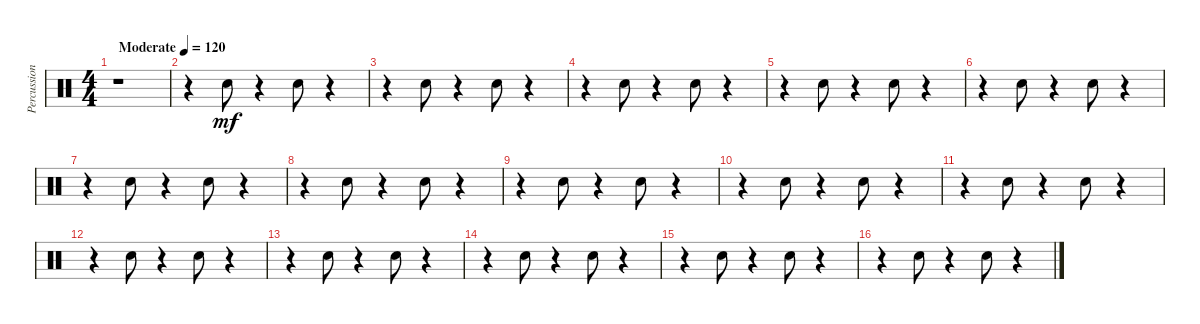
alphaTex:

\track ("Percussions" "Percussion") {instrument percussion}
\staff {score}
\articulation defaults
\ts (4 4)
\tempo (120 "Moderate")
\tempo 100
\tempo (120 "Moderate")
\clef neutral
\ks c
r.1{dy mf} |
r.4 "Electric Snare (hit)".8 r.4 "Electric Snare (hit)".8 r.4 |
r.4 "Electric Snare (hit)".8 r.4 "Electric Snare (hit)".8 r.4 |
r.4 "Electric Snare (hit)".8 r.4 "Electric Snare (hit)".8 r.4 |
r.4 "Electric Snare (hit)".8 r.4 "Electric Snare (hit)".8 r.4 |
r.4 "Electric Snare (hit)".8 r.4 "Electric Snare (hit)".8 r.4 |
r.4 "Electric Snare (hit)".8 r.4 "Electric Snare (hit)".8 r.4 |
r.4 "Electric Snare (hit)".8 r.4 "Electric Snare (hit)".8 r.4 |
r.4 "Electric Snare (hit)".8 r.4 "Electric Snare (hit)".8 r.4 |
r.4 "Electric Snare (hit)".8 r.4 "Electric Snare (hit)".8 r.4 |
r.4 "Electric Snare (hit)".8 r.4 "Electric Snare (hit)".8 r.4 |
r.4 "Electric Snare (hit)".8 r.4 "Electric Snare (hit)".8 r.4 |
r.4 "Electric Snare (hit)".8 r.4 "Electric Snare (hit)".8 r.4 |
r.4 "Electric Snare (hit)".8 r.4 "Electric Snare (hit)".8 r.4 |
r.4 "Electric Snare (hit)".8 r.4 "Electric Snare (hit)".8 r.4 |
r.4 "Electric Snare (hit)".8 r.4 "Electric Snare (hit)".8 r.4
